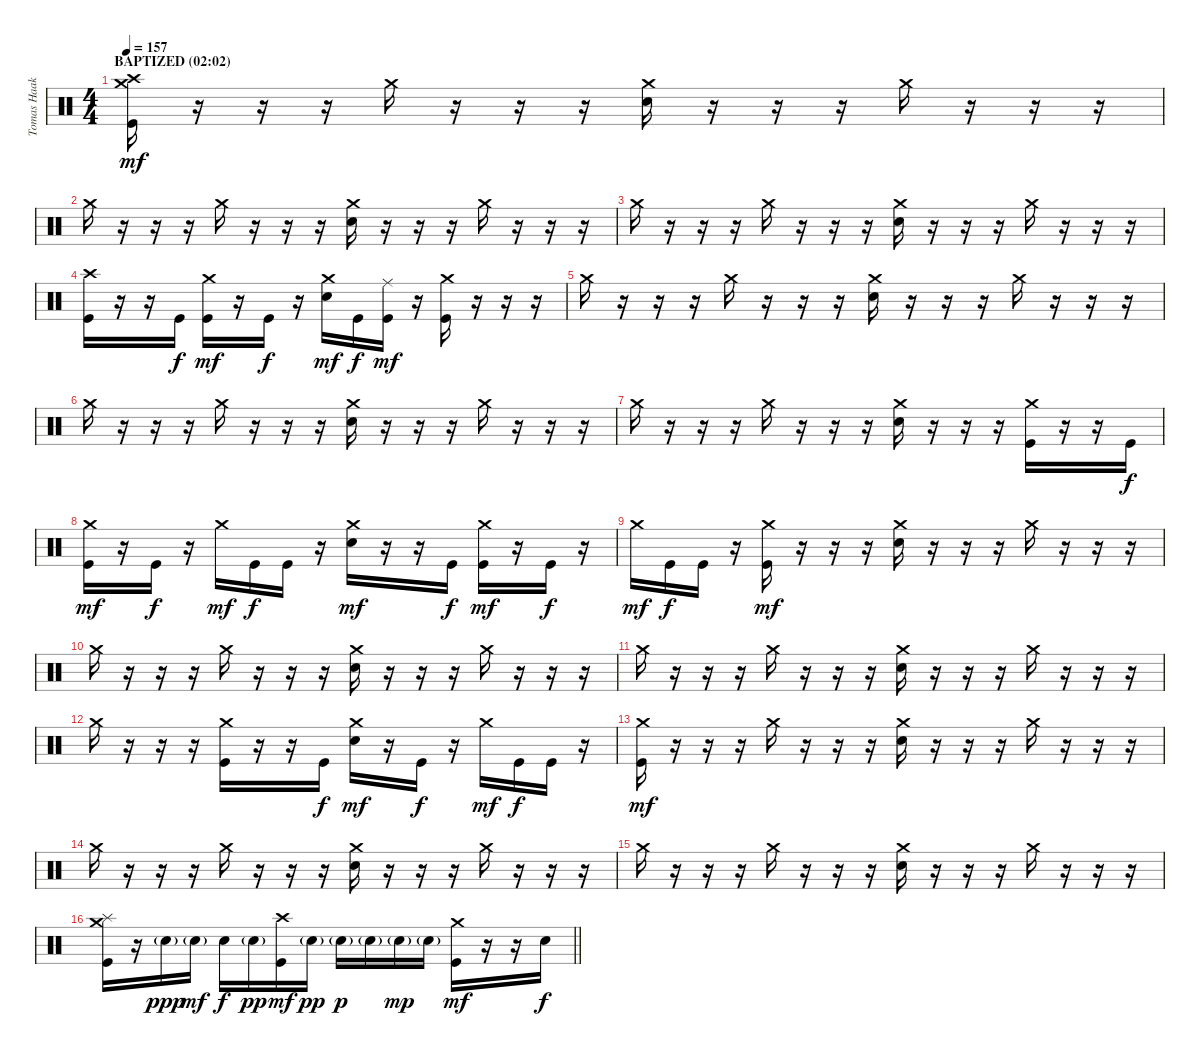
\track ("Tomas Haake (Drums)" "Tomas Haak") {instrument percussion}
\staff {score}
\articulation defaults
\ts (4 4)
\section ("" "BAPTIZED (02:02)")
\tempo 157
\clef neutral
\ks c
("Crash medium (hit)" "Crash high (hit)" "Kick (hit)").16{dy mf} r.16 r.16 r.16 "Crash medium (hit)".16 r.16 r.16 r.16 ("Crash medium (hit)" "Electric Snare (hit)").16 r.16 r.16 r.16 "Crash medium (hit)".16 r.16 r.16 r.16 |
"Crash medium (hit)".16 r.16 r.16 r.16 "Crash medium (hit)".16 r.16 r.16 r.16 ("Crash medium (hit)" "Electric Snare (hit)").16 r.16 r.16 r.16 "Crash medium (hit)".16 r.16 r.16 r.16 |
"Crash medium (hit)".16 r.16 r.16 r.16 "Crash medium (hit)".16 r.16 r.16 r.16 ("Crash medium (hit)" "Electric Snare (hit)").16 r.16 r.16 r.16 "Crash medium (hit)".16 r.16 r.16 r.16 |
("Crash high (hit)" "Kick (hit)").16 r.16 r.16 "Kick (hit)".16{dy f} ("Crash medium (hit)" "Kick (hit)").16{dy mf} r.16 "Kick (hit)".16{dy f} r.16 ("Crash medium (hit)" "Electric Snare (hit)").16{dy mf} "Kick (hit)".16{dy f} ("Ride (middle)" "Kick (hit)").16{dy mf} r.16 ("Crash medium (hit)" "Kick (hit)").16 r.16 r.16 r.16 |
"Crash medium (hit)".16 r.16 r.16 r.16 "Crash medium (hit)".16 r.16 r.16 r.16 ("Crash medium (hit)" "Electric Snare (hit)").16 r.16 r.16 r.16 "Crash medium (hit)".16 r.16 r.16 r.16 |
"Crash medium (hit)".16 r.16 r.16 r.16 "Crash medium (hit)".16 r.16 r.16 r.16 ("Crash medium (hit)" "Electric Snare (hit)").16 r.16 r.16 r.16 "Crash medium (hit)".16 r.16 r.16 r.16 |
"Crash medium (hit)".16 r.16 r.16 r.16 "Crash medium (hit)".16 r.16 r.16 r.16 ("Crash medium (hit)" "Electric Snare (hit)").16 r.16 r.16 r.16 ("Crash medium (hit)" "Kick (hit)").16 r.16 r.16 "Kick (hit)".16{dy f} |
("Crash medium (hit)" "Kick (hit)").16{dy mf} r.16 "Kick (hit)".16{dy f} r.16 "Crash medium (hit)".16{dy mf} "Kick (hit)".16{dy f} "Kick (hit)".16 r.16 ("Crash medium (hit)" "Electric Snare (hit)").16{dy mf} r.16 r.16 "Kick (hit)".16{dy f} ("Crash medium (hit)" "Kick (hit)").16{dy mf} r.16 "Kick (hit)".16{dy f} r.16 |
"Crash medium (hit)".16{dy mf} "Kick (hit)".16{dy f} "Kick (hit)".16 r.16 ("Crash medium (hit)" "Kick (hit)").16{dy mf} r.16 r.16 r.16 ("Crash medium (hit)" "Electric Snare (hit)").16 r.16 r.16 r.16 "Crash medium (hit)".16 r.16 r.16 r.16 |
"Crash medium (hit)".16 r.16 r.16 r.16 "Crash medium (hit)".16 r.16 r.16 r.16 ("Crash medium (hit)" "Electric Snare (hit)").16 r.16 r.16 r.16 "Crash medium (hit)".16 r.16 r.16 r.16 |
"Crash medium (hit)".16 r.16 r.16 r.16 "Crash medium (hit)".16 r.16 r.16 r.16 ("Crash medium (hit)" "Electric Snare (hit)").16 r.16 r.16 r.16 "Crash medium (hit)".16 r.16 r.16 r.16 |
"Crash medium (hit)".16 r.16 r.16 r.16 ("Crash medium (hit)" "Kick (hit)").16 r.16 r.16 "Kick (hit)".16{dy f} ("Crash medium (hit)" "Electric Snare (hit)").16{dy mf} r.16 "Kick (hit)".16{dy f} r.16 "Crash medium (hit)".16{dy mf} "Kick (hit)".16{dy f} "Kick (hit)".16 r.16 |
("Crash medium (hit)" "Kick (hit)").16{dy mf} r.16 r.16 r.16 "Crash medium (hit)".16 r.16 r.16 r.16 ("Crash medium (hit)" "Electric Snare (hit)").16 r.16 r.16 r.16 "Crash medium (hit)".16 r.16 r.16 r.16 |
"Crash medium (hit)".16 r.16 r.16 r.16 "Crash medium (hit)".16 r.16 r.16 r.16 ("Crash medium (hit)" "Electric Snare (hit)").16 r.16 r.16 r.16 "Crash medium (hit)".16 r.16 r.16 r.16 |
"Crash medium (hit)".16 r.16 r.16 r.16 "Crash medium (hit)".16 r.16 r.16 r.16 ("Crash medium (hit)" "Electric Snare (hit)").16 r.16 r.16 r.16 "Crash medium (hit)".16 r.16 r.16 r.16 |
\barLineRight lightlight
("Crash medium (hit)" "Splash (hit)" "Kick (hit)").16 r.16 "Electric Snare (hit)"{g}.16{dy ppp} "Electric Snare (hit)"{g}.16{dy mf} "Electric Snare (hit)".16{dy f} "Electric Snare (hit)"{g}.16{dy pp} ("Crash high (hit)" "Kick (hit)").16{dy mf} "Electric Snare (hit)"{g}.16{dy pp} "Electric Snare (hit)"{g}.16{dy p} "Electric Snare (hit)"{g}.16 "Electric Snare (hit)"{g}.16{dy mp} "Electric Snare (hit)"{g}.16 ("Crash medium (hit)" "Kick (hit)").16{dy mf} r.16 r.16 "Electric Snare (hit)".16{dy f}
